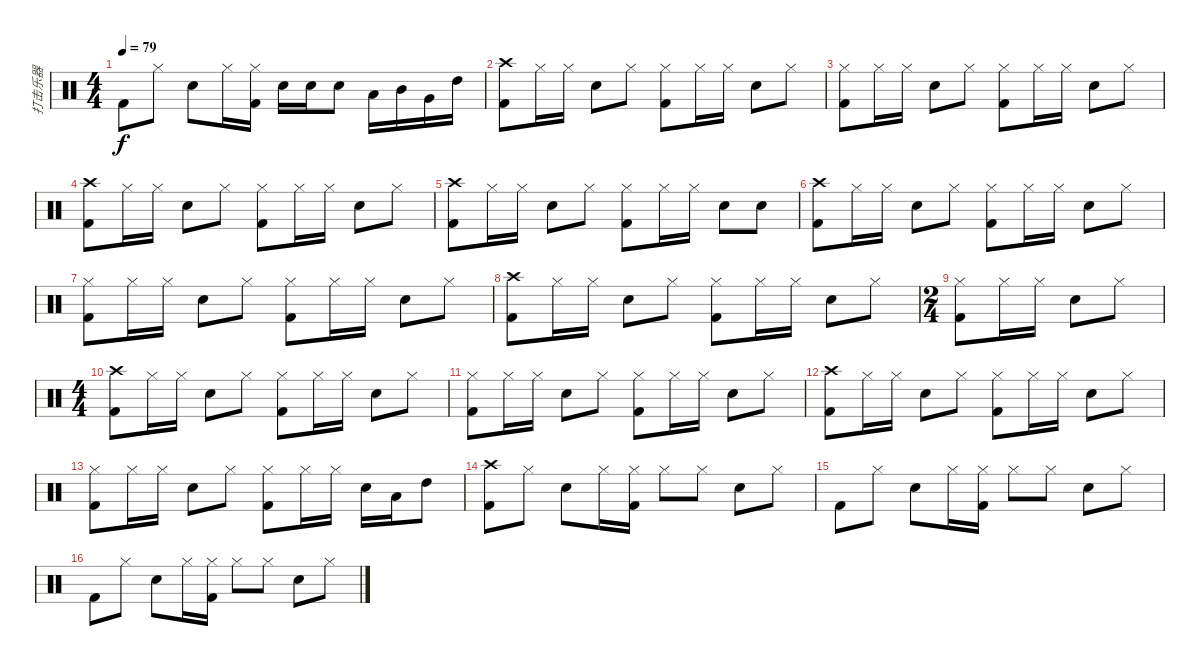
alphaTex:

\track ("打击乐器" "打击乐器") {instrument percussion}
\staff {score}
\articulation defaults
\ts (4 4)
\tempo 79
\clef neutral
\ks c "Kick (hit) 2".8{dy f} "Hi-Hat (closed)".8 "Electric Snare (hit)".8 "Hi-Hat (closed)".16
("Hi-Hat (closed)" "Kick (hit) 2").16 "Electric Snare (hit)".16 "Electric Snare (hit)".16 "Electric Snare (hit)".8 "Low Tom (hit)".16 "Mid Tom (hit)".16 "Very Low Tom (hit)".16 "High Tom (hit)".16 |
("Crash high (hit)" "Kick (hit) 2").8 "Hi-Hat (closed)".16 "Hi-Hat (closed)".16 "Electric Snare (hit)".8 "Hi-Hat (closed)".8 ("Hi-Hat (closed)" "Kick (hit) 2").8 "Hi-Hat (closed)".16 "Hi-Hat (closed)".16 "Electric Snare (hit)".8 "Hi-Hat (closed)".8 |
("Hi-Hat (closed)" "Kick (hit) 2").8 "Hi-Hat (closed)".16 "Hi-Hat (closed)".16 "Electric Snare (hit)".8 "Hi-Hat (closed)".8 ("Hi-Hat (closed)" "Kick (hit) 2").8 "Hi-Hat (closed)".16 "Hi-Hat (closed)".16 "Electric Snare (hit)".8 "Hi-Hat (closed)".8 |
("Crash high (hit)" "Kick (hit) 2").8 "Hi-Hat (closed)".16 "Hi-Hat (closed)".16 "Electric Snare (hit)".8 "Hi-Hat (closed)".8 ("Hi-Hat (closed)" "Kick (hit) 2").8 "Hi-Hat (closed)".16 "Hi-Hat (closed)".16 "Electric Snare (hit)".8 "Hi-Hat (closed)".8 |
("Crash high (hit)" "Kick (hit) 2").8 "Hi-Hat (closed)".16 "Hi-Hat (closed)".16 "Electric Snare (hit)".8 "Hi-Hat (closed)".8 ("Hi-Hat (closed)" "Kick (hit) 2").8 "Hi-Hat (closed)".16 "Hi-Hat (closed)".16 "Electric Snare (hit)".8 "Electric Snare (hit)".8 |
("Crash high (hit)" "Kick (hit) 2").8 "Hi-Hat (closed)".16 "Hi-Hat (closed)".16 "Electric Snare (hit)".8 "Hi-Hat (closed)".8 ("Hi-Hat (closed)" "Kick (hit) 2").8 "Hi-Hat (closed)".16 "Hi-Hat (closed)".16 "Electric Snare (hit)".8 "Hi-Hat (closed)".8 |
("Hi-Hat (closed)" "Kick (hit) 2").8 "Hi-Hat (closed)".16 "Hi-Hat (closed)".16 "Electric Snare (hit)".8 "Hi-Hat (closed)".8 ("Hi-Hat (closed)" "Kick (hit) 2").8 "Hi-Hat (closed)".16 "Hi-Hat (closed)".16 "Electric Snare (hit)".8 "Hi-Hat (closed)".8 |
("Crash high (hit)" "Kick (hit) 2").8 "Hi-Hat (closed)".16 "Hi-Hat (closed)".16 "Electric Snare (hit)".8 "Hi-Hat (closed)".8 ("Hi-Hat (closed)" "Kick (hit) 2").8 "Hi-Hat (closed)".16 "Hi-Hat (closed)".16 "Electric Snare (hit)".8 "Hi-Hat (closed)".8 |
\ts (2 4)
("Hi-Hat (closed)" "Kick (hit) 2").8 "Hi-Hat (closed)".16 "Hi-Hat (closed)".16 "Electric Snare (hit)".8 "Hi-Hat (closed)".8 |
\ts (4 4)
("Crash high (hit)" "Kick (hit) 2").8 "Hi-Hat (closed)".16 "Hi-Hat (closed)".16 "Electric Snare (hit)".8 "Hi-Hat (closed)".8 ("Hi-Hat (closed)" "Kick (hit) 2").8 "Hi-Hat (closed)".16 "Hi-Hat (closed)".16 "Electric Snare (hit)".8 "Hi-Hat (closed)".8 |
("Hi-Hat (closed)" "Kick (hit) 2").8 "Hi-Hat (closed)".16 "Hi-Hat (closed)".16 "Electric Snare (hit)".8 "Hi-Hat (closed)".8 ("Hi-Hat (closed)" "Kick (hit) 2").8 "Hi-Hat (closed)".16 "Hi-Hat (closed)".16 "Electric Snare (hit)".8 "Hi-Hat (closed)".8 |
("Crash high (hit)" "Kick (hit) 2").8 "Hi-Hat (closed)".16 "Hi-Hat (closed)".16 "Electric Snare (hit)".8 "Hi-Hat (closed)".8 ("Hi-Hat (closed)" "Kick (hit) 2").8 "Hi-Hat (closed)".16 "Hi-Hat (closed)".16 "Electric Snare (hit)".8 "Hi-Hat (closed)".8 |
("Hi-Hat (closed)" "Kick (hit) 2").8 "Hi-Hat (closed)".16 "Hi-Hat (closed)".16 "Electric Snare (hit)".8 "Hi-Hat (closed)".8 ("Hi-Hat (closed)" "Kick (hit) 2").8 "Hi-Hat (closed)".16 "Hi-Hat (closed)".16 "Electric Snare (hit)".16 "Low Tom (hit)".16 "High Tom (hit)".8 |
("Crash high (hit)" "Kick (hit) 2").8 "Hi-Hat (closed)".8 "Electric Snare (hit)".8 "Hi-Hat (closed)".16 ("Hi-Hat (closed)" "Kick (hit) 2").16 "Hi-Hat (closed)".8 "Hi-Hat (closed)".8 "Electric Snare (hit)".8 "Hi-Hat (closed)".8 |
"Kick (hit) 2".8 "Hi-Hat (closed)".8 "Electric Snare (hit)".8 "Hi-Hat (closed)".16 ("Hi-Hat (closed)" "Kick (hit) 2").16 "Hi-Hat (closed)".8 "Hi-Hat (closed)".8 "Electric Snare (hit)".8 "Hi-Hat (closed)".8 |
"Kick (hit) 2".8 "Hi-Hat (closed)".8 "Electric Snare (hit)".8 "Hi-Hat (closed)".16 ("Hi-Hat (closed)" "Kick (hit) 2").16 "Hi-Hat (closed)".8 "Hi-Hat (closed)".8 "Electric Snare (hit)".8 "Hi-Hat (closed)".8
